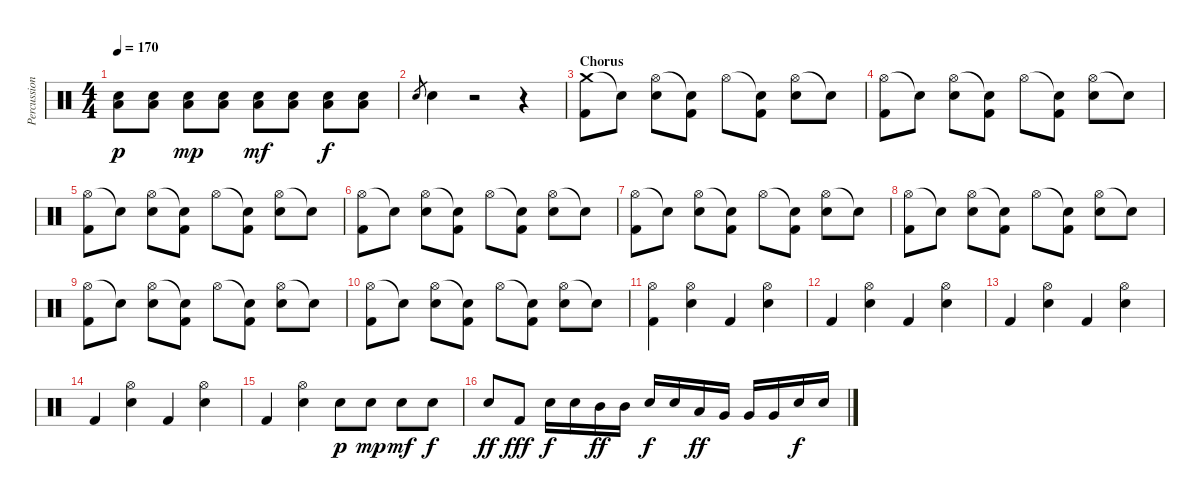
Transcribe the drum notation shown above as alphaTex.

\track ("Percussions" "Percussion") {instrument percussion}
\staff {score}
\articulation defaults
\ts (4 4)
\tempo 170
\clef neutral
\ks c
("Low Floor Tom (hit)" "Snare (hit) 2").8{dy p} ("Low Floor Tom (hit)" "Snare (hit) 2").8 ("Low Floor Tom (hit)" "Snare (hit) 2").8{dy mp} ("Low Floor Tom (hit)" "Snare (hit) 2").8 ("Low Floor Tom (hit)" "Snare (hit) 2").8{dy mf} ("Low Floor Tom (hit)" "Snare (hit) 2").8 ("Low Floor Tom (hit)" "Snare (hit) 2").8{dy f} ("Low Floor Tom (hit)" "Snare (hit) 2").8 |
"Snare (hit) 2".8{gr} "Snare (hit) 2".4 r.2 r.4 |
\section ("" "Chorus")
("Crash medium (hit)" "Kick (hit) 2").8 "Snare (hit)"{t}.8 ("Hi-Hat (open)" "Snare (hit) 2").8 ("Snare (hit)"{t} "Kick (hit) 2").8 "Hi-Hat (open)".8 ("Snare (hit)"{t} "Kick (hit) 2").8 ("Hi-Hat (open)" "Snare (hit) 2").8 "Snare (hit)"{t}.8 |
("Hi-Hat (open)" "Kick (hit) 2").8 "Snare (hit)"{t}.8 ("Hi-Hat (open)" "Snare (hit) 2").8 ("Snare (hit)"{t} "Kick (hit) 2").8 "Hi-Hat (open)".8 ("Snare (hit)"{t} "Kick (hit) 2").8 ("Hi-Hat (open)" "Snare (hit) 2").8 "Snare (hit)"{t}.8 |
("Hi-Hat (open)" "Kick (hit) 2").8 "Snare (hit)"{t}.8 ("Hi-Hat (open)" "Snare (hit) 2").8 ("Snare (hit)"{t} "Kick (hit) 2").8 "Hi-Hat (open)".8 ("Snare (hit)"{t} "Kick (hit) 2").8 ("Hi-Hat (open)" "Snare (hit) 2").8 "Snare (hit)"{t}.8 |
("Hi-Hat (open)" "Kick (hit) 2").8 "Snare (hit)"{t}.8 ("Hi-Hat (open)" "Snare (hit) 2").8 ("Snare (hit)"{t} "Kick (hit) 2").8 "Hi-Hat (open)".8 ("Snare (hit)"{t} "Kick (hit) 2").8 ("Hi-Hat (open)" "Snare (hit) 2").8 "Snare (hit)"{t}.8 |
("Hi-Hat (open)" "Kick (hit) 2").8 "Snare (hit)"{t}.8 ("Hi-Hat (open)" "Snare (hit) 2").8 ("Snare (hit)"{t} "Kick (hit) 2").8 "Hi-Hat (open)".8 ("Snare (hit)"{t} "Kick (hit) 2").8 ("Hi-Hat (open)" "Snare (hit) 2").8 "Snare (hit)"{t}.8 |
("Hi-Hat (open)" "Kick (hit) 2").8 "Snare (hit)"{t}.8 ("Hi-Hat (open)" "Snare (hit) 2").8 ("Snare (hit)"{t} "Kick (hit) 2").8 "Hi-Hat (open)".8 ("Snare (hit)"{t} "Kick (hit) 2").8 ("Hi-Hat (open)" "Snare (hit) 2").8 "Snare (hit)"{t}.8 |
("Hi-Hat (open)" "Kick (hit) 2").8 "Snare (hit)"{t}.8 ("Hi-Hat (open)" "Snare (hit) 2").8 ("Snare (hit)"{t} "Kick (hit) 2").8 "Hi-Hat (open)".8 ("Snare (hit)"{t} "Kick (hit) 2").8 ("Hi-Hat (open)" "Snare (hit) 2").8 "Snare (hit)"{t}.8 |
("Hi-Hat (open)" "Kick (hit) 2").8 "Snare (hit)"{t}.8 ("Hi-Hat (open)" "Snare (hit) 2").8 ("Snare (hit)"{t} "Kick (hit) 2").8 "Hi-Hat (open)".8 ("Snare (hit)"{t} "Kick (hit) 2").8 ("Hi-Hat (open)" "Snare (hit) 2").8 "Snare (hit)"{t}.8 |
("Hi-Hat (open)" "Kick (hit) 2").4 ("Hi-Hat (open)" "Snare (hit) 2").4 "Kick (hit) 2".4 ("Hi-Hat (open)" "Snare (hit) 2").4 |
"Kick (hit) 2".4 ("Hi-Hat (open)" "Snare (hit) 2").4 "Kick (hit) 2".4 ("Hi-Hat (open)" "Snare (hit) 2").4 |
"Kick (hit) 2".4 ("Hi-Hat (open)" "Snare (hit) 2").4 "Kick (hit) 2".4 ("Hi-Hat (open)" "Snare (hit) 2").4 |
"Kick (hit) 2".4 ("Hi-Hat (open)" "Snare (hit) 2").4 "Kick (hit) 2".4 ("Hi-Hat (open)" "Snare (hit) 2").4 |
"Kick (hit) 2".4 ("Hi-Hat (open)" "Snare (hit) 2").4 "Snare (hit) 2".8{dy p} "Snare (hit) 2".8{dy mp} "Snare (hit) 2".8{dy mf} "Snare (hit) 2".8{dy f} |
"Snare (hit) 2".8{dy ff} "Kick (hit) 2".8{dy fff} "Snare (hit) 2".16{dy f} "Snare (hit) 2".16 "Mid Tom (hit)".16{dy ff} "Mid Tom (hit)".16 "Snare (hit) 2".16{dy f} "Snare (hit) 2".16 "Low Tom (hit)".16{dy ff} "Very Low Tom (hit)".16 "Very Low Tom (hit)".16 "Very Low Tom (hit)".16 "Snare (hit) 2".16{dy f} "Snare (hit) 2".16
